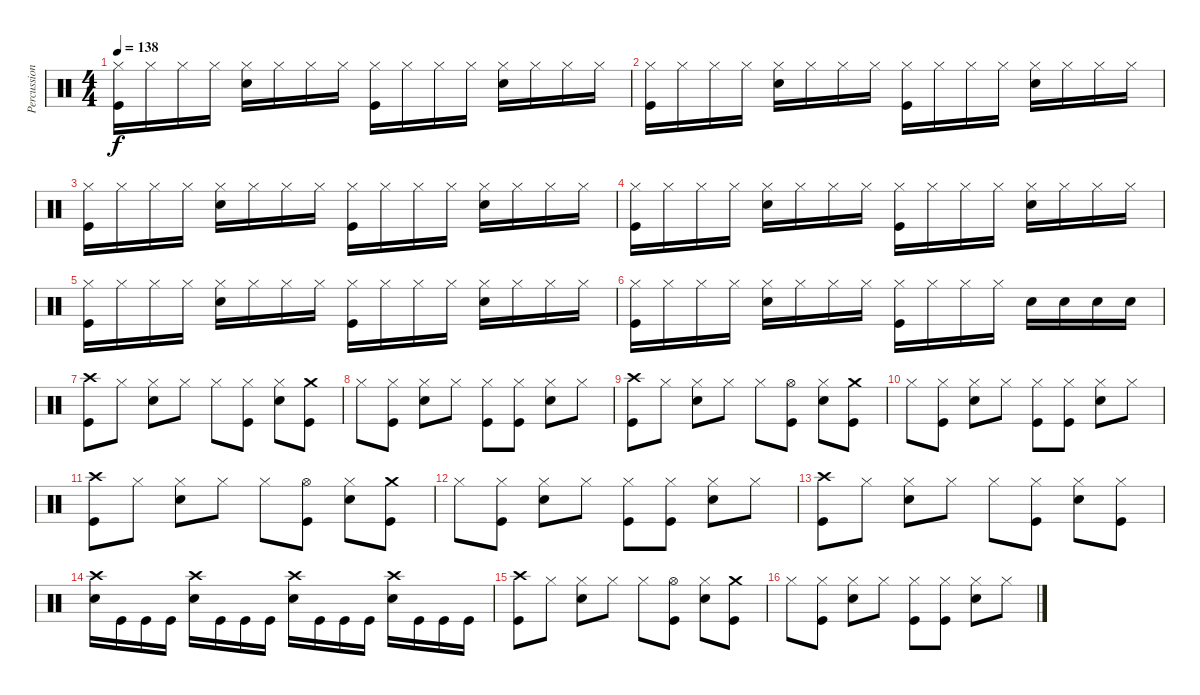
\track ("Percussion" "Percussion") {instrument percussion}
\staff {score}
\articulation defaults
\ts (4 4)
\tempo 138
\clef neutral
\ks c
("Kick (hit)" "Hi-Hat (closed)").16{dy f} "Hi-Hat (closed)".16 "Hi-Hat (closed)".16 "Hi-Hat (closed)".16 ("Snare (hit) 2" "Hi-Hat (closed)").16 "Hi-Hat (closed)".16 "Hi-Hat (closed)".16 "Hi-Hat (closed)".16 ("Kick (hit)" "Hi-Hat (closed)").16 "Hi-Hat (closed)".16 "Hi-Hat (closed)".16 "Hi-Hat (closed)".16 ("Snare (hit) 2" "Hi-Hat (closed)").16 "Hi-Hat (closed)".16 "Hi-Hat (closed)".16 "Hi-Hat (closed)".16 |
("Kick (hit)" "Hi-Hat (closed)").16 "Hi-Hat (closed)".16 "Hi-Hat (closed)".16 "Hi-Hat (closed)".16 ("Snare (hit) 2" "Hi-Hat (closed)").16 "Hi-Hat (closed)".16 "Hi-Hat (closed)".16 "Hi-Hat (closed)".16 ("Kick (hit)" "Hi-Hat (closed)").16 "Hi-Hat (closed)".16 "Hi-Hat (closed)".16 "Hi-Hat (closed)".16 ("Snare (hit) 2" "Hi-Hat (closed)").16 "Hi-Hat (closed)".16 "Hi-Hat (closed)".16 "Hi-Hat (closed)".16 |
("Kick (hit)" "Hi-Hat (closed)").16 "Hi-Hat (closed)".16 "Hi-Hat (closed)".16 "Hi-Hat (closed)".16 ("Snare (hit) 2" "Hi-Hat (closed)").16 "Hi-Hat (closed)".16 "Hi-Hat (closed)".16 "Hi-Hat (closed)".16 ("Kick (hit)" "Hi-Hat (closed)").16 "Hi-Hat (closed)".16 "Hi-Hat (closed)".16 "Hi-Hat (closed)".16 ("Snare (hit) 2" "Hi-Hat (closed)").16 "Hi-Hat (closed)".16 "Hi-Hat (closed)".16 "Hi-Hat (closed)".16 |
("Kick (hit)" "Hi-Hat (closed)").16 "Hi-Hat (closed)".16 "Hi-Hat (closed)".16 "Hi-Hat (closed)".16 ("Snare (hit) 2" "Hi-Hat (closed)").16 "Hi-Hat (closed)".16 "Hi-Hat (closed)".16 "Hi-Hat (closed)".16 ("Kick (hit)" "Hi-Hat (closed)").16 "Hi-Hat (closed)".16 "Hi-Hat (closed)".16 "Hi-Hat (closed)".16 ("Snare (hit) 2" "Hi-Hat (closed)").16 "Hi-Hat (closed)".16 "Hi-Hat (closed)".16 "Hi-Hat (closed)".16 |
("Kick (hit)" "Hi-Hat (closed)").16 "Hi-Hat (closed)".16 "Hi-Hat (closed)".16 "Hi-Hat (closed)".16 ("Snare (hit) 2" "Hi-Hat (closed)").16 "Hi-Hat (closed)".16 "Hi-Hat (closed)".16 "Hi-Hat (closed)".16 ("Kick (hit)" "Hi-Hat (closed)").16 "Hi-Hat (closed)".16 "Hi-Hat (closed)".16 "Hi-Hat (closed)".16 ("Snare (hit) 2" "Hi-Hat (closed)").16 "Hi-Hat (closed)".16 "Hi-Hat (closed)".16 "Hi-Hat (closed)".16 |
("Kick (hit)" "Hi-Hat (closed)").16 "Hi-Hat (closed)".16 "Hi-Hat (closed)".16 "Hi-Hat (closed)".16 ("Snare (hit) 2" "Hi-Hat (closed)").16 "Hi-Hat (closed)".16 "Hi-Hat (closed)".16 "Hi-Hat (closed)".16 ("Kick (hit)" "Hi-Hat (closed)").16 "Hi-Hat (closed)".16 "Hi-Hat (closed)".16 "Hi-Hat (closed)".16 "Snare (hit) 2".16 "Snare (hit) 2".16 "Snare (hit) 2".16 "Snare (hit) 2".16 |
("Kick (hit)" "Crash high (hit)").8 "Hi-Hat (closed)".8 ("Snare (hit) 2" "Hi-Hat (closed)").8 "Hi-Hat (closed)".8 "Hi-Hat (closed)".8 ("Kick (hit)" "Hi-Hat (closed)").8 ("Snare (hit) 2" "Hi-Hat (closed)").8 ("Kick (hit)" "Crash medium (hit)").8 |
"Hi-Hat (closed)".8 ("Hi-Hat (closed)" "Kick (hit)").8 ("Hi-Hat (closed)" "Snare (hit) 2").8 "Hi-Hat (closed)".8 ("Hi-Hat (closed)" "Kick (hit)").8 ("Hi-Hat (closed)" "Kick (hit)").8 ("Snare (hit) 2" "Hi-Hat (closed)").8 "Hi-Hat (closed)".8 |
("Kick (hit)" "Crash high (hit)").8 "Hi-Hat (closed)".8 ("Snare (hit) 2" "Hi-Hat (closed)").8 "Hi-Hat (closed)".8 "Hi-Hat (closed)".8 ("Kick (hit)" "Hi-Hat (open)").8 ("Snare (hit) 2" "Hi-Hat (closed)").8 ("Kick (hit)" "Crash medium (hit)").8 |
"Hi-Hat (closed)".8 ("Hi-Hat (closed)" "Kick (hit)").8 ("Hi-Hat (closed)" "Snare (hit) 2").8 "Hi-Hat (closed)".8 ("Hi-Hat (closed)" "Kick (hit)").8 ("Hi-Hat (closed)" "Kick (hit)").8 ("Snare (hit) 2" "Hi-Hat (closed)").8 "Hi-Hat (closed)".8 |
("Kick (hit)" "Crash high (hit)").8 "Hi-Hat (closed)".8 ("Snare (hit) 2" "Hi-Hat (closed)").8 "Hi-Hat (closed)".8 "Hi-Hat (closed)".8 ("Kick (hit)" "Hi-Hat (open)").8 ("Snare (hit) 2" "Hi-Hat (closed)").8 ("Kick (hit)" "Crash medium (hit)").8 |
"Hi-Hat (closed)".8 ("Hi-Hat (closed)" "Kick (hit)").8 ("Hi-Hat (closed)" "Snare (hit) 2").8 "Hi-Hat (closed)".8 ("Hi-Hat (closed)" "Kick (hit)").8 ("Hi-Hat (closed)" "Kick (hit)").8 ("Snare (hit) 2" "Hi-Hat (closed)").8 "Hi-Hat (closed)".8 |
("Kick (hit)" "Crash high (hit)").8 "Hi-Hat (closed)".8 ("Snare (hit) 2" "Hi-Hat (closed)").8 "Hi-Hat (closed)".8 "Hi-Hat (closed)".8 ("Kick (hit)" "Hi-Hat (closed)").8 ("Snare (hit) 2" "Hi-Hat (closed)").8 ("Kick (hit)" "Hi-Hat (closed)").8 |
("Snare (hit) 2" "Crash high (hit)").16 "Kick (hit)".16 "Kick (hit)".16 "Kick (hit)".16 ("Snare (hit) 2" "Crash high (hit)").16 "Kick (hit)".16 "Kick (hit)".16 "Kick (hit)".16 ("Snare (hit) 2" "Crash high (hit)").16 "Kick (hit)".16 "Kick (hit)".16 "Kick (hit)".16 ("Snare (hit) 2" "Crash high (hit)").16 "Kick (hit)".16 "Kick (hit)".16 "Kick (hit)".16 |
("Kick (hit)" "Crash high (hit)").8 "Hi-Hat (closed)".8 ("Snare (hit) 2" "Hi-Hat (closed)").8 "Hi-Hat (closed)".8 "Hi-Hat (closed)".8 ("Kick (hit)" "Hi-Hat (open)").8 ("Snare (hit) 2" "Hi-Hat (closed)").8 ("Kick (hit)" "Crash medium (hit)").8 |
"Hi-Hat (closed)".8 ("Hi-Hat (closed)" "Kick (hit)").8 ("Hi-Hat (closed)" "Snare (hit) 2").8 "Hi-Hat (closed)".8 ("Hi-Hat (closed)" "Kick (hit)").8 ("Hi-Hat (closed)" "Kick (hit)").8 ("Snare (hit) 2" "Hi-Hat (closed)").8 "Hi-Hat (closed)".8
